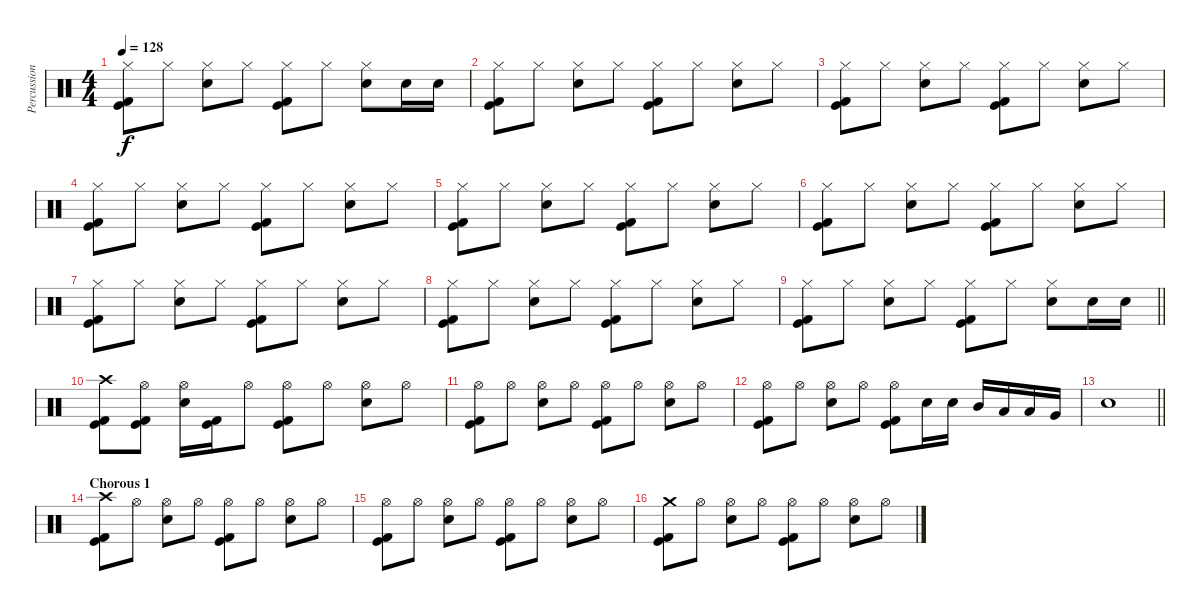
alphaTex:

\track ("Percussion" "Percussion") {instrument percussion}
\staff {score}
\articulation defaults
\ts (4 4)
\tempo 128
\clef neutral
\ks c
("Hi-Hat (closed)" "Kick (hit)" "Kick (hit) 2").8{dy f} "Hi-Hat (closed)".8 ("Hi-Hat (closed)" "Electric Snare (hit)").8 "Hi-Hat (closed)".8 ("Hi-Hat (closed)" "Kick (hit)" "Kick (hit) 2").8 "Hi-Hat (closed)".8 ("Hi-Hat (closed)" "Electric Snare (hit)").8 "Electric Snare (hit)".16 "Electric Snare (hit)".16 |
("Hi-Hat (closed)" "Kick (hit)" "Kick (hit) 2").8 "Hi-Hat (closed)".8 ("Hi-Hat (closed)" "Electric Snare (hit)").8 "Hi-Hat (closed)".8 ("Hi-Hat (closed)" "Kick (hit)" "Kick (hit) 2").8 "Hi-Hat (closed)".8 ("Hi-Hat (closed)" "Electric Snare (hit)").8 "Hi-Hat (closed)".8 |
("Hi-Hat (closed)" "Kick (hit)" "Kick (hit) 2").8 "Hi-Hat (closed)".8 ("Hi-Hat (closed)" "Electric Snare (hit)").8 "Hi-Hat (closed)".8 ("Hi-Hat (closed)" "Kick (hit)" "Kick (hit) 2").8 "Hi-Hat (closed)".8 ("Hi-Hat (closed)" "Electric Snare (hit)").8 "Hi-Hat (closed)".8 |
("Hi-Hat (closed)" "Kick (hit)" "Kick (hit) 2").8 "Hi-Hat (closed)".8 ("Hi-Hat (closed)" "Electric Snare (hit)").8 "Hi-Hat (closed)".8 ("Hi-Hat (closed)" "Kick (hit)" "Kick (hit) 2").8 "Hi-Hat (closed)".8 ("Hi-Hat (closed)" "Electric Snare (hit)").8 "Hi-Hat (closed)".8 |
("Hi-Hat (closed)" "Kick (hit)" "Kick (hit) 2").8 "Hi-Hat (closed)".8 ("Hi-Hat (closed)" "Electric Snare (hit)").8 "Hi-Hat (closed)".8 ("Hi-Hat (closed)" "Kick (hit)" "Kick (hit) 2").8 "Hi-Hat (closed)".8 ("Hi-Hat (closed)" "Electric Snare (hit)").8 "Hi-Hat (closed)".8 |
("Hi-Hat (closed)" "Kick (hit)" "Kick (hit) 2").8 "Hi-Hat (closed)".8 ("Hi-Hat (closed)" "Electric Snare (hit)").8 "Hi-Hat (closed)".8 ("Hi-Hat (closed)" "Kick (hit)" "Kick (hit) 2").8 "Hi-Hat (closed)".8 ("Hi-Hat (closed)" "Electric Snare (hit)").8 "Hi-Hat (closed)".8 |
("Hi-Hat (closed)" "Kick (hit)" "Kick (hit) 2").8 "Hi-Hat (closed)".8 ("Hi-Hat (closed)" "Electric Snare (hit)").8 "Hi-Hat (closed)".8 ("Hi-Hat (closed)" "Kick (hit)" "Kick (hit) 2").8 "Hi-Hat (closed)".8 ("Hi-Hat (closed)" "Electric Snare (hit)").8 "Hi-Hat (closed)".8 |
("Hi-Hat (closed)" "Kick (hit)" "Kick (hit) 2").8 "Hi-Hat (closed)".8 ("Hi-Hat (closed)" "Electric Snare (hit)").8 "Hi-Hat (closed)".8 ("Hi-Hat (closed)" "Kick (hit)" "Kick (hit) 2").8 "Hi-Hat (closed)".8 ("Hi-Hat (closed)" "Electric Snare (hit)").8 "Hi-Hat (closed)".8 |
\barLineRight lightlight
("Hi-Hat (closed)" "Kick (hit)" "Kick (hit) 2").8 "Hi-Hat (closed)".8 ("Hi-Hat (closed)" "Electric Snare (hit)").8 "Hi-Hat (closed)".8 ("Hi-Hat (closed)" "Kick (hit)" "Kick (hit) 2").8 "Hi-Hat (closed)".8 ("Hi-Hat (closed)" "Electric Snare (hit)").8 "Electric Snare (hit)".16 "Electric Snare (hit)".16 |
\section ("" "")
("Crash high (hit)" "Kick (hit)" "Kick (hit) 2").8 ("Hi-Hat (open)" "Kick (hit)" "Kick (hit) 2").8 ("Hi-Hat (open)" "Electric Snare (hit)").16 ("Kick (hit)" "Kick (hit) 2").16 "Hi-Hat (open)".8 ("Hi-Hat (open)" "Kick (hit)" "Kick (hit) 2").8 "Hi-Hat (open)".8 ("Hi-Hat (open)" "Electric Snare (hit)").8 "Hi-Hat (open)".8 |
("Hi-Hat (open)" "Kick (hit)" "Kick (hit) 2").8 "Hi-Hat (open)".8 ("Hi-Hat (open)" "Electric Snare (hit)").8 "Hi-Hat (open)".8 ("Hi-Hat (open)" "Kick (hit)" "Kick (hit) 2").8 "Hi-Hat (open)".8 ("Hi-Hat (open)" "Electric Snare (hit)").8 "Hi-Hat (open)".8 |
("Hi-Hat (open)" "Kick (hit)" "Kick (hit) 2").8 "Hi-Hat (open)".8 ("Hi-Hat (open)" "Electric Snare (hit)").8 "Hi-Hat (open)".8 ("Hi-Hat (open)" "Kick (hit)" "Kick (hit) 2").8 "Electric Snare (hit)".16 "Electric Snare (hit)".16 "Mid Tom (hit)".16 "Low Tom (hit)".16 "Low Tom (hit)".16 "Very Low Tom (hit)".16 |
\barLineRight lightlight "Electric Snare (hit)".1
|
\section ("" "Chorous 1")
("Crash high (hit)" "Kick (hit)" "Kick (hit) 2").8 "Hi-Hat (open)".8 ("Hi-Hat (open)" "Electric Snare (hit)").8 "Hi-Hat (open)".8 ("Hi-Hat (open)" "Kick (hit)" "Kick (hit) 2").8 "Hi-Hat (open)".8 ("Hi-Hat (open)" "Electric Snare (hit)").8 "Hi-Hat (open)".8 |
("Hi-Hat (open)" "Kick (hit)" "Kick (hit) 2").8 "Hi-Hat (open)".8 ("Hi-Hat (open)" "Electric Snare (hit)").8 "Hi-Hat (open)".8 ("Hi-Hat (open)" "Kick (hit)" "Kick (hit) 2").8 "Hi-Hat (open)".8 ("Hi-Hat (open)" "Electric Snare (hit)").8 "Hi-Hat (open)".8 |
("Crash medium (hit)" "Kick (hit)" "Kick (hit) 2").8 "Hi-Hat (open)".8 ("Hi-Hat (open)" "Electric Snare (hit)").8 "Hi-Hat (open)".8 ("Hi-Hat (open)" "Kick (hit)" "Kick (hit) 2").8 "Hi-Hat (open)".8 ("Hi-Hat (open)" "Electric Snare (hit)").8 "Hi-Hat (open)".8
